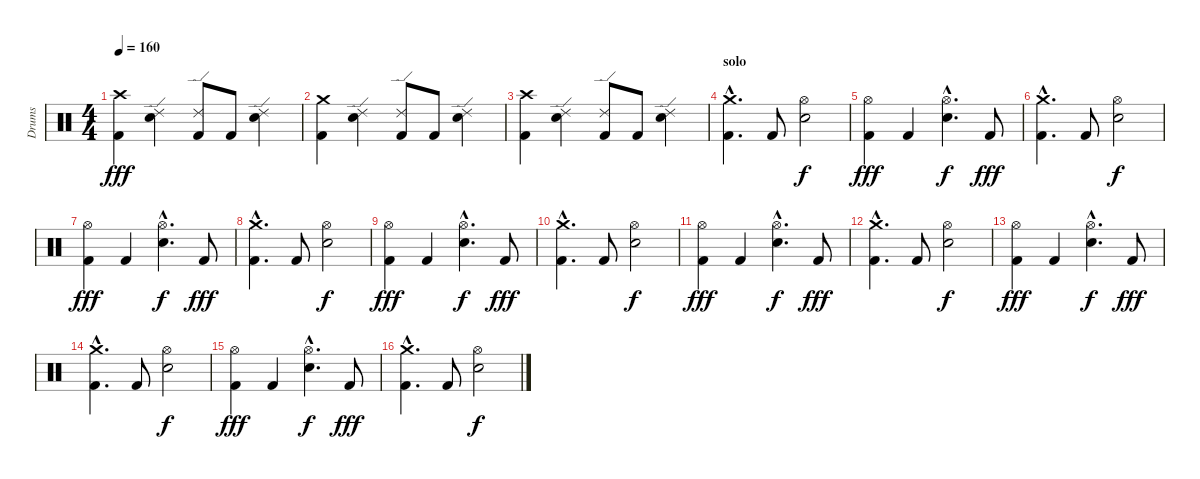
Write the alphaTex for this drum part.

\track ("Drums" "Drums") {instrument percussion}
\staff {score}
\articulation defaults
\ts (4 4)
\tempo 160
\clef neutral
\ks c
("Crash high (hit)" "Kick (hit) 2").4{dy fff} ("Ride (edge) 2" "Electric Snare (hit)").4 ("Ride (edge) 2" "Kick (hit) 2").8 "Kick (hit) 2".8 ("Ride (edge) 2" "Electric Snare (hit)").4 |
("Crash medium (hit)" "Kick (hit) 2").4 ("Ride (edge) 2" "Electric Snare (hit)").4 ("Ride (edge) 2" "Kick (hit) 2").8 "Kick (hit) 2".8 ("Ride (edge) 2" "Electric Snare (hit)").4 |
("Crash high (hit)" "Kick (hit) 2").4 ("Ride (edge) 2" "Electric Snare (hit)").4 ("Ride (edge) 2" "Kick (hit) 2").8 "Kick (hit) 2".8 ("Ride (edge) 2" "Electric Snare (hit)").4 |
\section ("" "solo")
("Crash medium (hit)"{hac} "Kick (hit) 2"{hac}).4{d} "Kick (hit) 2".8 ("Hi-Hat (open)" "Electric Snare (hit)").2{dy f} |
("Hi-Hat (open)" "Kick (hit) 2").4{dy fff} "Kick (hit) 2".4 ("Hi-Hat (open)"{hac} "Electric Snare (hit)"{hac}).4{d dy f} "Kick (hit) 2".8{dy fff} |
("Crash medium (hit)"{hac} "Kick (hit) 2"{hac}).4{d} "Kick (hit) 2".8 ("Hi-Hat (open)" "Electric Snare (hit)").2{dy f} |
("Hi-Hat (open)" "Kick (hit) 2").4{dy fff} "Kick (hit) 2".4 ("Hi-Hat (open)"{hac} "Electric Snare (hit)"{hac}).4{d dy f} "Kick (hit) 2".8{dy fff} |
("Crash medium (hit)"{hac} "Kick (hit) 2"{hac}).4{d} "Kick (hit) 2".8 ("Hi-Hat (open)" "Electric Snare (hit)").2{dy f} |
("Hi-Hat (open)" "Kick (hit) 2").4{dy fff} "Kick (hit) 2".4 ("Hi-Hat (open)"{hac} "Electric Snare (hit)"{hac}).4{d dy f} "Kick (hit) 2".8{dy fff} |
("Crash medium (hit)"{hac} "Kick (hit) 2"{hac}).4{d} "Kick (hit) 2".8 ("Hi-Hat (open)" "Electric Snare (hit)").2{dy f} |
("Hi-Hat (open)" "Kick (hit) 2").4{dy fff} "Kick (hit) 2".4 ("Hi-Hat (open)"{hac} "Electric Snare (hit)"{hac}).4{d dy f} "Kick (hit) 2".8{dy fff} |
("Crash medium (hit)"{hac} "Kick (hit) 2"{hac}).4{d} "Kick (hit) 2".8 ("Hi-Hat (open)" "Electric Snare (hit)").2{dy f} |
("Hi-Hat (open)" "Kick (hit) 2").4{dy fff} "Kick (hit) 2".4 ("Hi-Hat (open)"{hac} "Electric Snare (hit)"{hac}).4{d dy f} "Kick (hit) 2".8{dy fff} |
("Crash medium (hit)"{hac} "Kick (hit) 2"{hac}).4{d} "Kick (hit) 2".8 ("Hi-Hat (open)" "Electric Snare (hit)").2{dy f} |
("Hi-Hat (open)" "Kick (hit) 2").4{dy fff} "Kick (hit) 2".4 ("Hi-Hat (open)"{hac} "Electric Snare (hit)"{hac}).4{d dy f} "Kick (hit) 2".8{dy fff} |
("Crash medium (hit)"{hac} "Kick (hit) 2"{hac}).4{d} "Kick (hit) 2".8 ("Hi-Hat (open)" "Electric Snare (hit)").2{dy f}
